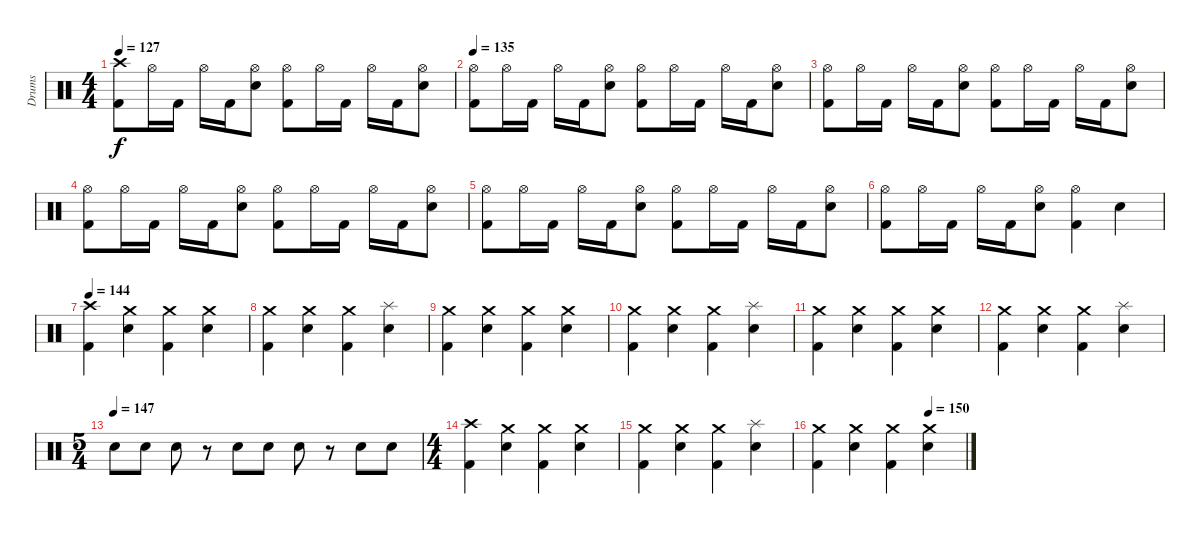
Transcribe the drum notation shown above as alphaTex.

\track ("Drums" "Drums") {instrument percussion}
\staff {score}
\articulation defaults
\ts (4 4)
\tempo 127
\clef neutral
\ks c
("Crash high (hit)" "Kick (hit) 2").8{dy f} "Hi-Hat (open)".16 "Kick (hit) 2".16 "Hi-Hat (open)".16 "Kick (hit) 2".16 ("Hi-Hat (open)" "Snare (hit) 2").8 ("Hi-Hat (open)" "Kick (hit) 2").8 "Hi-Hat (open)".16 "Kick (hit) 2".16 "Hi-Hat (open)".16 "Kick (hit) 2".16 ("Hi-Hat (open)" "Snare (hit) 2").8 |
\tempo 135
("Hi-Hat (open)" "Kick (hit) 2").8 "Hi-Hat (open)".16 "Kick (hit) 2".16 "Hi-Hat (open)".16 "Kick (hit) 2".16 ("Hi-Hat (open)" "Snare (hit) 2").8 ("Hi-Hat (open)" "Kick (hit) 2").8 "Hi-Hat (open)".16 "Kick (hit) 2".16 "Hi-Hat (open)".16 "Kick (hit) 2".16 ("Hi-Hat (open)" "Snare (hit) 2").8 |
("Hi-Hat (open)" "Kick (hit) 2").8 "Hi-Hat (open)".16 "Kick (hit) 2".16 "Hi-Hat (open)".16 "Kick (hit) 2".16 ("Hi-Hat (open)" "Snare (hit) 2").8 ("Hi-Hat (open)" "Kick (hit) 2").8 "Hi-Hat (open)".16 "Kick (hit) 2".16 "Hi-Hat (open)".16 "Kick (hit) 2".16 ("Hi-Hat (open)" "Snare (hit) 2").8 |
("Hi-Hat (open)" "Kick (hit) 2").8 "Hi-Hat (open)".16 "Kick (hit) 2".16 "Hi-Hat (open)".16 "Kick (hit) 2".16 ("Hi-Hat (open)" "Snare (hit) 2").8 ("Hi-Hat (open)" "Kick (hit) 2").8 "Hi-Hat (open)".16 "Kick (hit) 2".16 "Hi-Hat (open)".16 "Kick (hit) 2".16 ("Hi-Hat (open)" "Snare (hit) 2").8 |
("Hi-Hat (open)" "Kick (hit) 2").8 "Hi-Hat (open)".16 "Kick (hit) 2".16 "Hi-Hat (open)".16 "Kick (hit) 2".16 ("Hi-Hat (open)" "Snare (hit) 2").8 ("Hi-Hat (open)" "Kick (hit) 2").8 "Hi-Hat (open)".16 "Kick (hit) 2".16 "Hi-Hat (open)".16 "Kick (hit) 2".16 ("Hi-Hat (open)" "Snare (hit) 2").8 |
("Hi-Hat (open)" "Kick (hit) 2").8 "Hi-Hat (open)".16 "Kick (hit) 2".16 "Hi-Hat (open)".16 "Kick (hit) 2".16 ("Hi-Hat (open)" "Snare (hit) 2").8 ("Hi-Hat (open)" "Kick (hit) 2").4 "Snare (hit) 2".4 |
\tempo 144
("Crash high (hit)" "Kick (hit) 2").4 ("Crash medium (hit)" "Snare (hit) 2").4 ("Crash medium (hit)" "Kick (hit) 2").4 ("Crash medium (hit)" "Snare (hit) 2").4 |
("Crash medium (hit)" "Kick (hit) 2").4 ("Crash medium (hit)" "Snare (hit) 2").4 ("Crash medium (hit)" "Kick (hit) 2").4 ("Splash (hit)" "Snare (hit) 2").4 |
("Crash medium (hit)" "Kick (hit) 2").4 ("Crash medium (hit)" "Snare (hit) 2").4 ("Crash medium (hit)" "Kick (hit) 2").4 ("Crash medium (hit)" "Snare (hit) 2").4 |
("Crash medium (hit)" "Kick (hit) 2").4 ("Crash medium (hit)" "Snare (hit) 2").4 ("Crash medium (hit)" "Kick (hit) 2").4 ("Splash (hit)" "Snare (hit) 2").4 |
("Crash medium (hit)" "Kick (hit) 2").4 ("Crash medium (hit)" "Snare (hit) 2").4 ("Crash medium (hit)" "Kick (hit) 2").4 ("Crash medium (hit)" "Snare (hit) 2").4 |
("Crash medium (hit)" "Kick (hit) 2").4 ("Crash medium (hit)" "Snare (hit) 2").4 ("Crash medium (hit)" "Kick (hit) 2").4 ("Splash (hit)" "Snare (hit) 2").4 |
\ts (5 4)
\tempo (147)
"Snare (hit) 2".8 "Snare (hit) 2".8 "Snare (hit) 2".8 r.8 "Snare (hit) 2".8 "Snare (hit) 2".8 "Snare (hit) 2".8 r.8 "Snare (hit) 2".8 "Snare (hit) 2".8 |
\ts (4 4)
("Crash high (hit)" "Kick (hit) 2").4 ("Crash medium (hit)" "Snare (hit) 2").4 ("Crash medium (hit)" "Kick (hit) 2").4 ("Crash medium (hit)" "Snare (hit) 2").4 |
("Crash medium (hit)" "Kick (hit) 2").4 ("Crash medium (hit)" "Snare (hit) 2").4 ("Crash medium (hit)" "Kick (hit) 2").4 ("Splash (hit)" "Snare (hit) 2").4 |
\tempo (150 0.75)
("Crash medium (hit)" "Kick (hit) 2").4 ("Crash medium (hit)" "Snare (hit) 2").4 ("Crash medium (hit)" "Kick (hit) 2").4 ("Crash medium (hit)" "Snare (hit) 2").4
